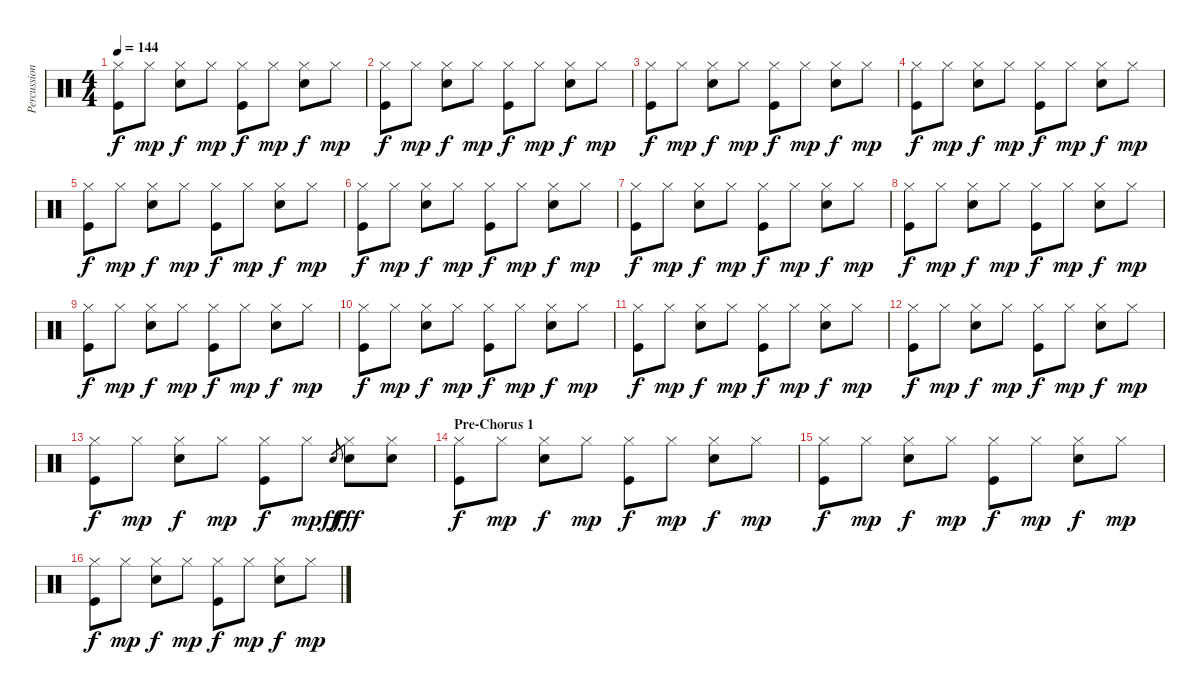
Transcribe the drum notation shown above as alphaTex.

\track ("Percussions" "Percussion") {instrument percussion}
\staff {score}
\articulation defaults
\ts (4 4)
\tempo 144
\clef neutral
\ks c
("Hi-Hat (closed)" "Kick (hit)").8{dy f} "Hi-Hat (closed)".8{dy mp} ("Hi-Hat (closed)" "Snare (hit) 2").8{dy f} "Hi-Hat (closed)".8{dy mp} ("Hi-Hat (closed)" "Kick (hit)").8{dy f} "Hi-Hat (closed)".8{dy mp} ("Hi-Hat (closed)" "Snare (hit) 2").8{dy f} "Hi-Hat (closed)".8{dy mp} |
("Hi-Hat (closed)" "Kick (hit)").8{dy f} "Hi-Hat (closed)".8{dy mp} ("Hi-Hat (closed)" "Snare (hit) 2").8{dy f} "Hi-Hat (closed)".8{dy mp} ("Hi-Hat (closed)" "Kick (hit)").8{dy f} "Hi-Hat (closed)".8{dy mp} ("Hi-Hat (closed)" "Snare (hit) 2").8{dy f} "Hi-Hat (closed)".8{dy mp} |
("Hi-Hat (closed)" "Kick (hit)").8{dy f} "Hi-Hat (closed)".8{dy mp} ("Hi-Hat (closed)" "Snare (hit) 2").8{dy f} "Hi-Hat (closed)".8{dy mp} ("Hi-Hat (closed)" "Kick (hit)").8{dy f} "Hi-Hat (closed)".8{dy mp} ("Hi-Hat (closed)" "Snare (hit) 2").8{dy f} "Hi-Hat (closed)".8{dy mp} |
("Hi-Hat (closed)" "Kick (hit)").8{dy f} "Hi-Hat (closed)".8{dy mp} ("Hi-Hat (closed)" "Snare (hit) 2").8{dy f} "Hi-Hat (closed)".8{dy mp} ("Hi-Hat (closed)" "Kick (hit)").8{dy f} "Hi-Hat (closed)".8{dy mp} ("Hi-Hat (closed)" "Snare (hit) 2").8{dy f} "Hi-Hat (closed)".8{dy mp} |
("Hi-Hat (closed)" "Kick (hit)").8{dy f} "Hi-Hat (closed)".8{dy mp} ("Hi-Hat (closed)" "Snare (hit) 2").8{dy f} "Hi-Hat (closed)".8{dy mp} ("Hi-Hat (closed)" "Kick (hit)").8{dy f} "Hi-Hat (closed)".8{dy mp} ("Hi-Hat (closed)" "Snare (hit) 2").8{dy f} "Hi-Hat (closed)".8{dy mp} |
("Hi-Hat (closed)" "Kick (hit)").8{dy f} "Hi-Hat (closed)".8{dy mp} ("Hi-Hat (closed)" "Snare (hit) 2").8{dy f} "Hi-Hat (closed)".8{dy mp} ("Hi-Hat (closed)" "Kick (hit)").8{dy f} "Hi-Hat (closed)".8{dy mp} ("Hi-Hat (closed)" "Snare (hit) 2").8{dy f} "Hi-Hat (closed)".8{dy mp} |
("Hi-Hat (closed)" "Kick (hit)").8{dy f} "Hi-Hat (closed)".8{dy mp} ("Hi-Hat (closed)" "Snare (hit) 2").8{dy f} "Hi-Hat (closed)".8{dy mp} ("Hi-Hat (closed)" "Kick (hit)").8{dy f} "Hi-Hat (closed)".8{dy mp} ("Hi-Hat (closed)" "Snare (hit) 2").8{dy f} "Hi-Hat (closed)".8{dy mp} |
("Hi-Hat (closed)" "Kick (hit)").8{dy f} "Hi-Hat (closed)".8{dy mp} ("Hi-Hat (closed)" "Snare (hit) 2").8{dy f} "Hi-Hat (closed)".8{dy mp} ("Hi-Hat (closed)" "Kick (hit)").8{dy f} "Hi-Hat (closed)".8{dy mp} ("Hi-Hat (closed)" "Snare (hit) 2").8{dy f} "Hi-Hat (closed)".8{dy mp} |
("Hi-Hat (closed)" "Kick (hit)").8{dy f} "Hi-Hat (closed)".8{dy mp} ("Hi-Hat (closed)" "Snare (hit) 2").8{dy f} "Hi-Hat (closed)".8{dy mp} ("Hi-Hat (closed)" "Kick (hit)").8{dy f} "Hi-Hat (closed)".8{dy mp} ("Hi-Hat (closed)" "Snare (hit) 2").8{dy f} "Hi-Hat (closed)".8{dy mp} |
("Hi-Hat (closed)" "Kick (hit)").8{dy f} "Hi-Hat (closed)".8{dy mp} ("Hi-Hat (closed)" "Snare (hit) 2").8{dy f} "Hi-Hat (closed)".8{dy mp} ("Hi-Hat (closed)" "Kick (hit)").8{dy f} "Hi-Hat (closed)".8{dy mp} ("Hi-Hat (closed)" "Snare (hit) 2").8{dy f} "Hi-Hat (closed)".8{dy mp} |
("Hi-Hat (closed)" "Kick (hit)").8{dy f} "Hi-Hat (closed)".8{dy mp} ("Hi-Hat (closed)" "Snare (hit) 2").8{dy f} "Hi-Hat (closed)".8{dy mp} ("Hi-Hat (closed)" "Kick (hit)").8{dy f} "Hi-Hat (closed)".8{dy mp} ("Hi-Hat (closed)" "Snare (hit) 2").8{dy f} "Hi-Hat (closed)".8{dy mp} |
("Hi-Hat (closed)" "Kick (hit)").8{dy f} "Hi-Hat (closed)".8{dy mp} ("Hi-Hat (closed)" "Snare (hit) 2").8{dy f} "Hi-Hat (closed)".8{dy mp} ("Hi-Hat (closed)" "Kick (hit)").8{dy f} "Hi-Hat (closed)".8{dy mp} ("Hi-Hat (closed)" "Snare (hit) 2").8{dy f} "Hi-Hat (closed)".8{dy mp} |
("Hi-Hat (closed)" "Kick (hit)").8{dy f} "Hi-Hat (closed)".8{dy mp} ("Hi-Hat (closed)" "Snare (hit) 2").8{dy f} "Hi-Hat (closed)".8{dy mp} ("Hi-Hat (closed)" "Kick (hit)").8{dy f} "Hi-Hat (closed)".8{dy mp} "Snare (hit) 2".8{gr dy ff} ("Hi-Hat (closed)" "Snare (hit) 2").8{dy fff} ("Hi-Hat (closed)" "Snare (hit) 2").8 |
\section ("" "Pre-Chorus 1")
("Hi-Hat (closed)" "Kick (hit)").8{dy f} "Hi-Hat (closed)".8{dy mp} ("Hi-Hat (closed)" "Snare (hit) 2").8{dy f} "Hi-Hat (closed)".8{dy mp} ("Hi-Hat (closed)" "Kick (hit)").8{dy f} "Hi-Hat (closed)".8{dy mp} ("Hi-Hat (closed)" "Snare (hit) 2").8{dy f} "Hi-Hat (closed)".8{dy mp} |
("Hi-Hat (closed)" "Kick (hit)").8{dy f} "Hi-Hat (closed)".8{dy mp} ("Hi-Hat (closed)" "Snare (hit) 2").8{dy f} "Hi-Hat (closed)".8{dy mp} ("Hi-Hat (closed)" "Kick (hit)").8{dy f} "Hi-Hat (closed)".8{dy mp} ("Hi-Hat (closed)" "Snare (hit) 2").8{dy f} "Hi-Hat (closed)".8{dy mp} |
("Hi-Hat (closed)" "Kick (hit)").8{dy f} "Hi-Hat (closed)".8{dy mp} ("Hi-Hat (closed)" "Snare (hit) 2").8{dy f} "Hi-Hat (closed)".8{dy mp} ("Hi-Hat (closed)" "Kick (hit)").8{dy f} "Hi-Hat (closed)".8{dy mp} ("Hi-Hat (closed)" "Snare (hit) 2").8{dy f} "Hi-Hat (closed)".8{dy mp}
